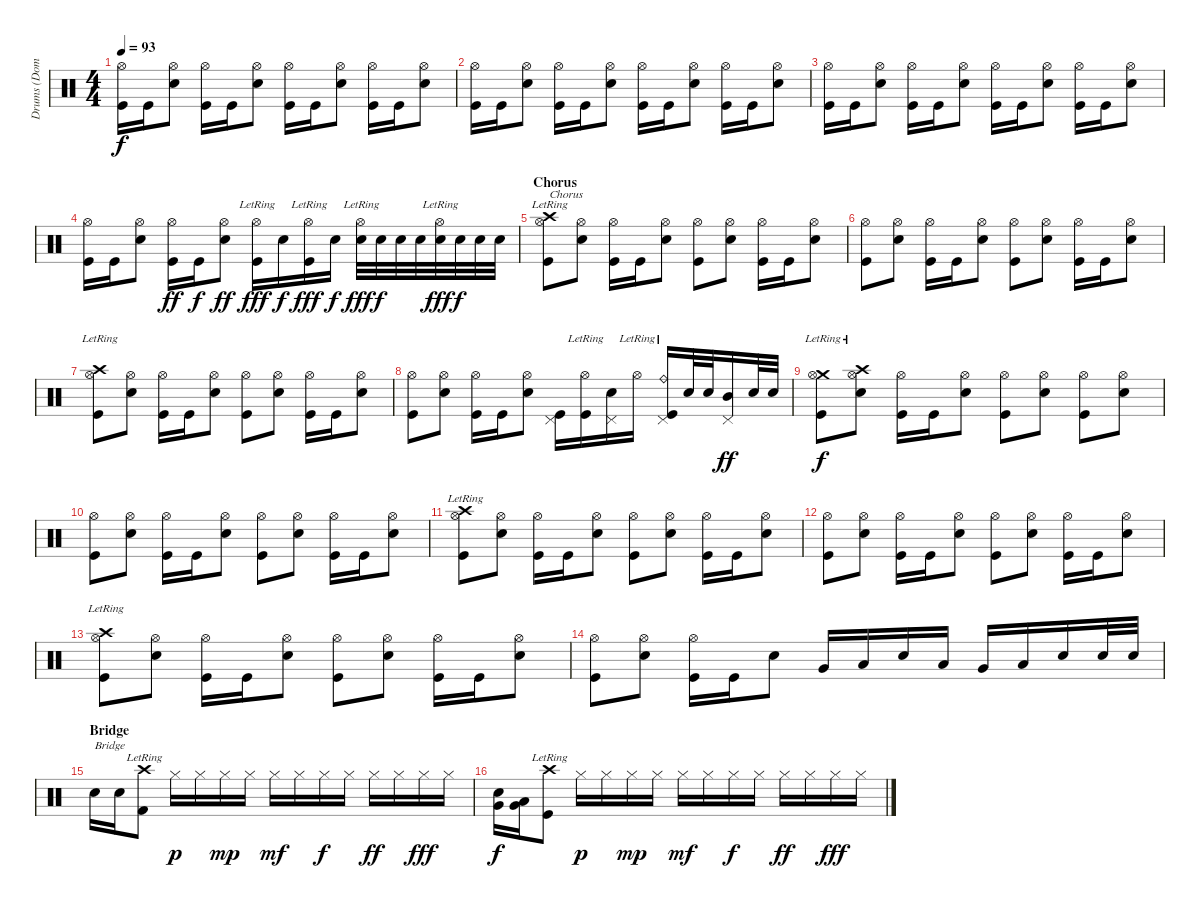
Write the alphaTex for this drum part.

\track ("Drums (Dominic Howard)" "Drums (Dom") {instrument percussion}
\staff {score}
\articulation defaults
\ts (4 4)
\tempo 93
\clef neutral
\ks c
("Hi-Hat (open)" "Kick (hit)").16{dy f} "Kick (hit)".16 ("Hi-Hat (open)" "Snare (hit) 2").8 ("Hi-Hat (open)" "Kick (hit)").16 "Kick (hit)".16 ("Hi-Hat (open)" "Snare (hit) 2").8 ("Hi-Hat (open)" "Kick (hit)").16 "Kick (hit)".16 ("Hi-Hat (open)" "Snare (hit) 2").8 ("Hi-Hat (open)" "Kick (hit)").16 "Kick (hit)".16 ("Hi-Hat (open)" "Snare (hit) 2").8 |
("Hi-Hat (open)" "Kick (hit)").16 "Kick (hit)".16 ("Hi-Hat (open)" "Snare (hit) 2").8 ("Hi-Hat (open)" "Kick (hit)").16 "Kick (hit)".16 ("Hi-Hat (open)" "Snare (hit) 2").8 ("Hi-Hat (open)" "Kick (hit)").16 "Kick (hit)".16 ("Hi-Hat (open)" "Snare (hit) 2").8 ("Hi-Hat (open)" "Kick (hit)").16 "Kick (hit)".16 ("Hi-Hat (open)" "Snare (hit) 2").8 |
("Hi-Hat (open)" "Kick (hit)").16 "Kick (hit)".16 ("Hi-Hat (open)" "Snare (hit) 2").8 ("Hi-Hat (open)" "Kick (hit)").16 "Kick (hit)".16 ("Hi-Hat (open)" "Snare (hit) 2").8 ("Hi-Hat (open)" "Kick (hit)").16 "Kick (hit)".16 ("Hi-Hat (open)" "Snare (hit) 2").8 ("Hi-Hat (open)" "Kick (hit)").16 "Kick (hit)".16 ("Hi-Hat (open)" "Snare (hit) 2").8 |
("Hi-Hat (open)" "Kick (hit)").16 "Kick (hit)".16 ("Hi-Hat (open)" "Snare (hit) 2").8 ("Hi-Hat (open)" "Kick (hit)").16{dy ff} "Kick (hit)".16{dy f} ("Hi-Hat (open)" "Snare (hit) 2").8{dy ff} ("Hi-Hat (open)"{lr} "Kick (hit)").16{dy fff} "Snare (hit) 2".16{dy f} ("Hi-Hat (open)"{lr} "Kick (hit)").16{dy fff} "Snare (hit) 2".16{dy f} ("Hi-Hat (open)"{lr} "Snare (hit) 2").32{dy fff} "Snare (hit) 2".32{dy f} "Snare (hit) 2".32 "Snare (hit) 2".32 ("Hi-Hat (open)"{lr} "Snare (hit) 2").32{dy fff} "Snare (hit) 2".32{dy f} "Snare (hit) 2".32 "Snare (hit) 2".32 |
\section ("" "Chorus")
("Crash high (hit)"{lr} "Hi-Hat (open)" "Kick (hit)").8{txt "Chorus"} ("Hi-Hat (open)" "Snare (hit) 2").8 ("Hi-Hat (open)" "Kick (hit)").16 "Kick (hit)".16 ("Hi-Hat (open)" "Snare (hit) 2").8 ("Hi-Hat (open)" "Kick (hit)").8 ("Hi-Hat (open)" "Snare (hit) 2").8 ("Hi-Hat (open)" "Kick (hit)").16 "Kick (hit)".16 ("Hi-Hat (open)" "Snare (hit) 2").8 |
("Hi-Hat (open)" "Kick (hit)").8 ("Hi-Hat (open)" "Snare (hit) 2").8 ("Hi-Hat (open)" "Kick (hit)").16 "Kick (hit)".16 ("Hi-Hat (open)" "Snare (hit) 2").8 ("Hi-Hat (open)" "Kick (hit)").8 ("Hi-Hat (open)" "Snare (hit) 2").8 ("Hi-Hat (open)" "Kick (hit)").16 "Kick (hit)".16 ("Hi-Hat (open)" "Snare (hit) 2").8 |
("Crash high (hit)"{lr} "Hi-Hat (open)" "Kick (hit)").8 ("Hi-Hat (open)" "Snare (hit) 2").8 ("Hi-Hat (open)" "Kick (hit)").16 "Kick (hit)".16 ("Hi-Hat (open)" "Snare (hit) 2").8 ("Hi-Hat (open)" "Kick (hit)").8 ("Hi-Hat (open)" "Snare (hit) 2").8 ("Hi-Hat (open)" "Kick (hit)").16 "Kick (hit)".16 ("Hi-Hat (open)" "Snare (hit) 2").8 |
("Hi-Hat (open)" "Kick (hit)").8 ("Hi-Hat (open)" "Snare (hit) 2").8 ("Hi-Hat (open)" "Kick (hit)").16 "Kick (hit)".16 ("Hi-Hat (open)" "Snare (hit) 2").8 ("Pedal Hi-Hat (hit)" "Kick (hit)").16 ("Hi-Hat (open)"{lr} "Kick (hit)").16 ("Pedal Hi-Hat (hit)" "Snare (hit) 2").16 "Hi-Hat (open)"{lr}.16 ("Pedal Hi-Hat (hit)" "Ride (bell)"{lr} "Kick (hit)").16 "Snare (hit) 2".32 "Snare (hit) 2".32 ("Pedal Hi-Hat (hit)" "Mid Tom (hit)").16{dy ff} "Snare (hit) 2".32 "Snare (hit) 2".32 |
("Crash medium (hit)"{lr} "Hi-Hat (open)" "Kick (hit)").8{dy f} ("Crash high (hit)"{lr} "Hi-Hat (open)" "Snare (hit) 2").8 ("Hi-Hat (open)" "Kick (hit)").16 "Kick (hit)".16 ("Hi-Hat (open)" "Snare (hit) 2").8 ("Hi-Hat (open)" "Kick (hit)").8 ("Hi-Hat (open)" "Snare (hit) 2").8 ("Hi-Hat (open)" "Kick (hit)").8 ("Hi-Hat (open)" "Snare (hit) 2").8 |
("Hi-Hat (open)" "Kick (hit)").8 ("Hi-Hat (open)" "Snare (hit) 2").8 ("Hi-Hat (open)" "Kick (hit)").16 "Kick (hit)".16 ("Hi-Hat (open)" "Snare (hit) 2").8 ("Hi-Hat (open)" "Kick (hit)").8 ("Hi-Hat (open)" "Snare (hit) 2").8 ("Hi-Hat (open)" "Kick (hit)").16 "Kick (hit)".16 ("Hi-Hat (open)" "Snare (hit) 2").8 |
("Crash high (hit)"{lr} "Hi-Hat (open)" "Kick (hit)").8 ("Hi-Hat (open)" "Snare (hit) 2").8 ("Hi-Hat (open)" "Kick (hit)").16 "Kick (hit)".16 ("Hi-Hat (open)" "Snare (hit) 2").8 ("Hi-Hat (open)" "Kick (hit)").8 ("Hi-Hat (open)" "Snare (hit) 2").8 ("Hi-Hat (open)" "Kick (hit)").16 "Kick (hit)".16 ("Hi-Hat (open)" "Snare (hit) 2").8 |
("Hi-Hat (open)" "Kick (hit)").8 ("Hi-Hat (open)" "Snare (hit) 2").8 ("Hi-Hat (open)" "Kick (hit)").16 "Kick (hit)".16 ("Hi-Hat (open)" "Snare (hit) 2").8 ("Hi-Hat (open)" "Kick (hit)").8 ("Hi-Hat (open)" "Snare (hit) 2").8 ("Hi-Hat (open)" "Kick (hit)").16 "Kick (hit)".16 ("Hi-Hat (open)" "Snare (hit) 2").8 |
("Crash high (hit)"{lr} "Hi-Hat (open)" "Kick (hit)").8 ("Hi-Hat (open)" "Snare (hit) 2").8 ("Hi-Hat (open)" "Kick (hit)").16 "Kick (hit)".16 ("Hi-Hat (open)" "Snare (hit) 2").8 ("Hi-Hat (open)" "Kick (hit)").8 ("Hi-Hat (open)" "Snare (hit) 2").8 ("Hi-Hat (open)" "Kick (hit)").16 "Kick (hit)".16 ("Hi-Hat (open)" "Snare (hit) 2").8 |
("Hi-Hat (open)" "Kick (hit)").8 ("Hi-Hat (open)" "Snare (hit) 2").8 ("Hi-Hat (open)" "Kick (hit)").16 "Kick (hit)".16 "Snare (hit) 2".8 "Very Low Tom (hit)".16 "Low Tom (hit)".16 "Snare (hit) 2".16 "Low Tom (hit)".16 "Very Low Tom (hit)".16 "Low Tom (hit)".16 "Snare (hit) 2".16 "Snare (hit) 2".32 "Snare (hit) 2".32 |
\section ("" "Bridge")
"Snare (hit) 2".16{txt "Bridge"} "Snare (hit) 2".16 ("Crash high (hit)"{lr} "Kick (hit) 2").8 "Hi-Hat (closed)".16{dy p} "Hi-Hat (closed)".16 "Hi-Hat (closed)".16{dy mp} "Hi-Hat (closed)".16 "Hi-Hat (closed)".16{dy mf} "Hi-Hat (closed)".16 "Hi-Hat (closed)".16{dy f} "Hi-Hat (closed)".16 "Hi-Hat (closed)".16{dy ff} "Hi-Hat (closed)".16 "Hi-Hat (closed)".16{dy fff} "Hi-Hat (closed)".16 |
("Very Low Tom (hit)" "Snare (hit) 2").16{dy f} ("Very Low Tom (hit)" "Low Tom (hit)").16 ("Crash high (hit)"{lr} "Kick (hit)").8 "Hi-Hat (closed)".16{dy p} "Hi-Hat (closed)".16 "Hi-Hat (closed)".16{dy mp} "Hi-Hat (closed)".16 "Hi-Hat (closed)".16{dy mf} "Hi-Hat (closed)".16 "Hi-Hat (closed)".16{dy f} "Hi-Hat (closed)".16 "Hi-Hat (closed)".16{dy ff} "Hi-Hat (closed)".16 "Hi-Hat (closed)".16{dy fff} "Hi-Hat (closed)".16
